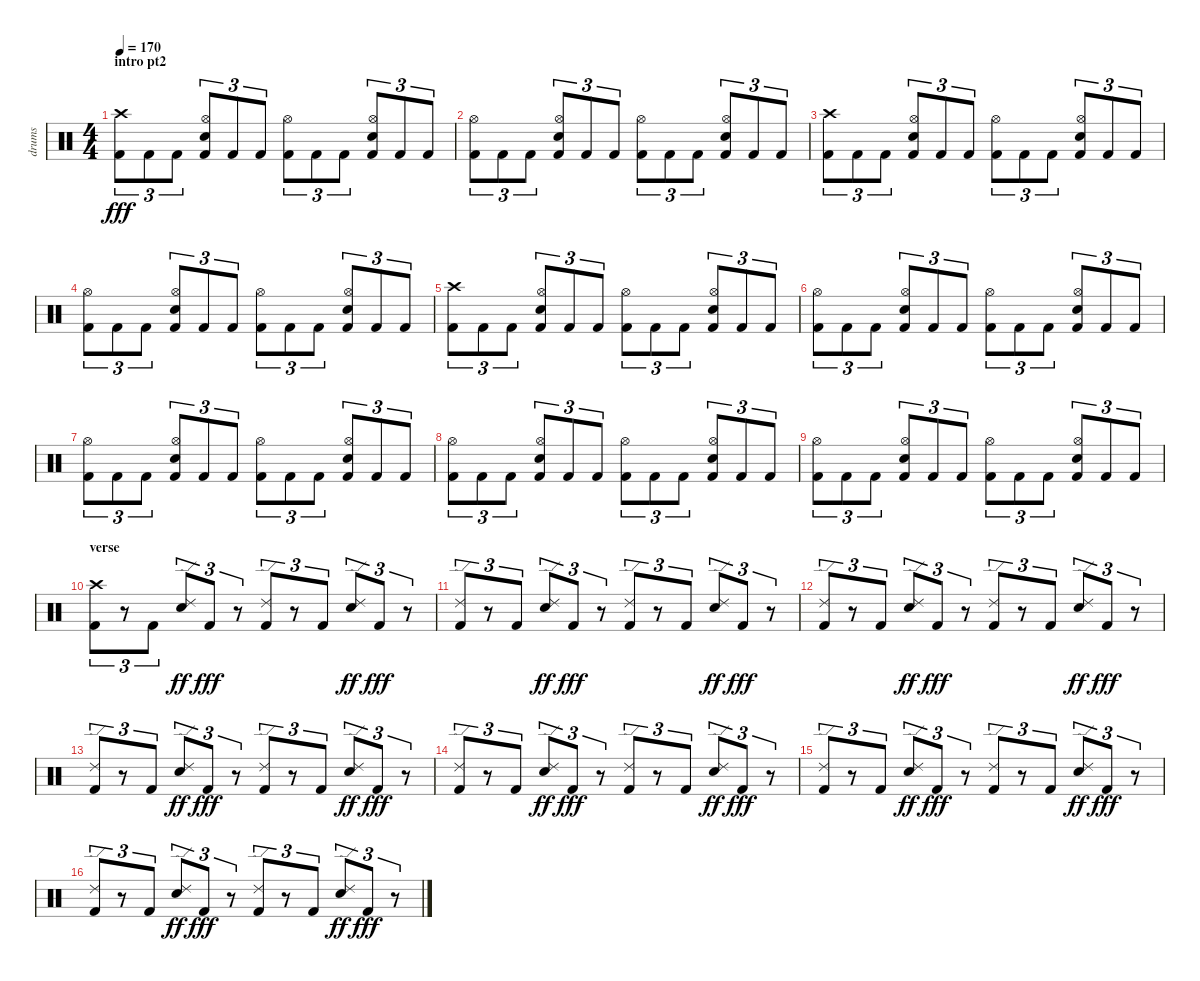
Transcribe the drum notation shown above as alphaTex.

\track ("drums" "drums") {instrument percussion}
\staff {score}
\articulation defaults
\ts (4 4)
\section ("" "intro pt2")
\tempo 170
\clef neutral
\ks c
("Crash high (hit)" "Kick (hit) 2").8{tu (3 2) dy fff} "Kick (hit) 2".8{tu (3 2)} "Kick (hit) 2".8{tu (3 2)} ("Hi-Hat (open)" "Snare (hit) 2" "Kick (hit) 2").8{tu (3 2)} "Kick (hit) 2".8{tu (3 2)} "Kick (hit) 2".8{tu (3 2)} ("Hi-Hat (open)" "Kick (hit) 2").8{tu (3 2)} "Kick (hit) 2".8{tu (3 2)} "Kick (hit) 2".8{tu (3 2)} ("Hi-Hat (open)" "Snare (hit) 2" "Kick (hit) 2").8{tu (3 2)} "Kick (hit) 2".8{tu (3 2)} "Kick (hit) 2".8{tu (3 2)} |
("Hi-Hat (open)" "Kick (hit) 2").8{tu (3 2)} "Kick (hit) 2".8{tu (3 2)} "Kick (hit) 2".8{tu (3 2)} ("Hi-Hat (open)" "Snare (hit) 2" "Kick (hit) 2").8{tu (3 2)} "Kick (hit) 2".8{tu (3 2)} "Kick (hit) 2".8{tu (3 2)} ("Hi-Hat (open)" "Kick (hit) 2").8{tu (3 2)} "Kick (hit) 2".8{tu (3 2)} "Kick (hit) 2".8{tu (3 2)} ("Hi-Hat (open)" "Snare (hit) 2" "Kick (hit) 2").8{tu (3 2)} "Kick (hit) 2".8{tu (3 2)} "Kick (hit) 2".8{tu (3 2)} |
("Crash high (hit)" "Kick (hit) 2").8{tu (3 2)} "Kick (hit) 2".8{tu (3 2)} "Kick (hit) 2".8{tu (3 2)} ("Hi-Hat (open)" "Snare (hit) 2" "Kick (hit) 2").8{tu (3 2)} "Kick (hit) 2".8{tu (3 2)} "Kick (hit) 2".8{tu (3 2)} ("Hi-Hat (open)" "Kick (hit) 2").8{tu (3 2)} "Kick (hit) 2".8{tu (3 2)} "Kick (hit) 2".8{tu (3 2)} ("Hi-Hat (open)" "Snare (hit) 2" "Kick (hit) 2").8{tu (3 2)} "Kick (hit) 2".8{tu (3 2)} "Kick (hit) 2".8{tu (3 2)} |
("Hi-Hat (open)" "Kick (hit) 2").8{tu (3 2)} "Kick (hit) 2".8{tu (3 2)} "Kick (hit) 2".8{tu (3 2)} ("Hi-Hat (open)" "Snare (hit) 2" "Kick (hit) 2").8{tu (3 2)} "Kick (hit) 2".8{tu (3 2)} "Kick (hit) 2".8{tu (3 2)} ("Hi-Hat (open)" "Kick (hit) 2").8{tu (3 2)} "Kick (hit) 2".8{tu (3 2)} "Kick (hit) 2".8{tu (3 2)} ("Hi-Hat (open)" "Snare (hit) 2" "Kick (hit) 2").8{tu (3 2)} "Kick (hit) 2".8{tu (3 2)} "Kick (hit) 2".8{tu (3 2)} |
("Crash high (hit)" "Kick (hit) 2").8{tu (3 2)} "Kick (hit) 2".8{tu (3 2)} "Kick (hit) 2".8{tu (3 2)} ("Hi-Hat (open)" "Snare (hit) 2" "Kick (hit) 2").8{tu (3 2)} "Kick (hit) 2".8{tu (3 2)} "Kick (hit) 2".8{tu (3 2)} ("Hi-Hat (open)" "Kick (hit) 2").8{tu (3 2)} "Kick (hit) 2".8{tu (3 2)} "Kick (hit) 2".8{tu (3 2)} ("Hi-Hat (open)" "Snare (hit) 2" "Kick (hit) 2").8{tu (3 2)} "Kick (hit) 2".8{tu (3 2)} "Kick (hit) 2".8{tu (3 2)} |
("Hi-Hat (open)" "Kick (hit) 2").8{tu (3 2)} "Kick (hit) 2".8{tu (3 2)} "Kick (hit) 2".8{tu (3 2)} ("Hi-Hat (open)" "Snare (hit) 2" "Kick (hit) 2").8{tu (3 2)} "Kick (hit) 2".8{tu (3 2)} "Kick (hit) 2".8{tu (3 2)} ("Hi-Hat (open)" "Kick (hit) 2").8{tu (3 2)} "Kick (hit) 2".8{tu (3 2)} "Kick (hit) 2".8{tu (3 2)} ("Hi-Hat (open)" "Snare (hit) 2" "Kick (hit) 2").8{tu (3 2)} "Kick (hit) 2".8{tu (3 2)} "Kick (hit) 2".8{tu (3 2)} |
("Hi-Hat (open)" "Kick (hit) 2").8{tu (3 2)} "Kick (hit) 2".8{tu (3 2)} "Kick (hit) 2".8{tu (3 2)} ("Hi-Hat (open)" "Snare (hit) 2" "Kick (hit) 2").8{tu (3 2)} "Kick (hit) 2".8{tu (3 2)} "Kick (hit) 2".8{tu (3 2)} ("Hi-Hat (open)" "Kick (hit) 2").8{tu (3 2)} "Kick (hit) 2".8{tu (3 2)} "Kick (hit) 2".8{tu (3 2)} ("Hi-Hat (open)" "Snare (hit) 2" "Kick (hit) 2").8{tu (3 2)} "Kick (hit) 2".8{tu (3 2)} "Kick (hit) 2".8{tu (3 2)} |
("Hi-Hat (open)" "Kick (hit) 2").8{tu (3 2)} "Kick (hit) 2".8{tu (3 2)} "Kick (hit) 2".8{tu (3 2)} ("Hi-Hat (open)" "Snare (hit) 2" "Kick (hit) 2").8{tu (3 2)} "Kick (hit) 2".8{tu (3 2)} "Kick (hit) 2".8{tu (3 2)} ("Hi-Hat (open)" "Kick (hit) 2").8{tu (3 2)} "Kick (hit) 2".8{tu (3 2)} "Kick (hit) 2".8{tu (3 2)} ("Hi-Hat (open)" "Snare (hit) 2" "Kick (hit) 2").8{tu (3 2)} "Kick (hit) 2".8{tu (3 2)} "Kick (hit) 2".8{tu (3 2)} |
("Hi-Hat (open)" "Kick (hit) 2").8{tu (3 2)} "Kick (hit) 2".8{tu (3 2)} "Kick (hit) 2".8{tu (3 2)} ("Hi-Hat (open)" "Snare (hit) 2" "Kick (hit) 2").8{tu (3 2)} "Kick (hit) 2".8{tu (3 2)} "Kick (hit) 2".8{tu (3 2)} ("Hi-Hat (open)" "Kick (hit) 2").8{tu (3 2)} "Kick (hit) 2".8{tu (3 2)} "Kick (hit) 2".8{tu (3 2)} ("Hi-Hat (open)" "Snare (hit) 2" "Kick (hit) 2").8{tu (3 2)} "Kick (hit) 2".8{tu (3 2)} "Kick (hit) 2".8{tu (3 2)} |
\section ("" "verse")
("Crash high (hit)" "Kick (hit) 2").8{tu (3 2)} r.8{tu (3 2)} "Kick (hit) 2".8{tu (3 2)} ("Ride (edge) 2" "Snare (hit) 2").8{tu (3 2) dy ff} "Kick (hit) 2".8{tu (3 2) dy fff} r.8{tu (3 2)} ("Ride (edge) 2" "Kick (hit) 2").8{tu (3 2)} r.8{tu (3 2)} "Kick (hit) 2".8{tu (3 2)} ("Ride (edge) 2" "Snare (hit) 2").8{tu (3 2) dy ff} "Kick (hit) 2".8{tu (3 2) dy fff} r.8{tu (3 2)} |
("Ride (edge) 2" "Kick (hit) 2").8{tu (3 2)} r.8{tu (3 2)} "Kick (hit) 2".8{tu (3 2)} ("Ride (edge) 2" "Snare (hit) 2").8{tu (3 2) dy ff} "Kick (hit) 2".8{tu (3 2) dy fff} r.8{tu (3 2)} ("Ride (edge) 2" "Kick (hit) 2").8{tu (3 2)} r.8{tu (3 2)} "Kick (hit) 2".8{tu (3 2)} ("Ride (edge) 2" "Snare (hit) 2").8{tu (3 2) dy ff} "Kick (hit) 2".8{tu (3 2) dy fff} r.8{tu (3 2)} |
("Ride (edge) 2" "Kick (hit) 2").8{tu (3 2)} r.8{tu (3 2)} "Kick (hit) 2".8{tu (3 2)} ("Ride (edge) 2" "Snare (hit) 2").8{tu (3 2) dy ff} "Kick (hit) 2".8{tu (3 2) dy fff} r.8{tu (3 2)} ("Ride (edge) 2" "Kick (hit) 2").8{tu (3 2)} r.8{tu (3 2)} "Kick (hit) 2".8{tu (3 2)} ("Ride (edge) 2" "Snare (hit) 2").8{tu (3 2) dy ff} "Kick (hit) 2".8{tu (3 2) dy fff} r.8{tu (3 2)} |
("Ride (edge) 2" "Kick (hit) 2").8{tu (3 2)} r.8{tu (3 2)} "Kick (hit) 2".8{tu (3 2)} ("Ride (edge) 2" "Snare (hit) 2").8{tu (3 2) dy ff} "Kick (hit) 2".8{tu (3 2) dy fff} r.8{tu (3 2)} ("Ride (edge) 2" "Kick (hit) 2").8{tu (3 2)} r.8{tu (3 2)} "Kick (hit) 2".8{tu (3 2)} ("Ride (edge) 2" "Snare (hit) 2").8{tu (3 2) dy ff} "Kick (hit) 2".8{tu (3 2) dy fff} r.8{tu (3 2)} |
("Ride (edge) 2" "Kick (hit) 2").8{tu (3 2)} r.8{tu (3 2)} "Kick (hit) 2".8{tu (3 2)} ("Ride (edge) 2" "Snare (hit) 2").8{tu (3 2) dy ff} "Kick (hit) 2".8{tu (3 2) dy fff} r.8{tu (3 2)} ("Ride (edge) 2" "Kick (hit) 2").8{tu (3 2)} r.8{tu (3 2)} "Kick (hit) 2".8{tu (3 2)} ("Ride (edge) 2" "Snare (hit) 2").8{tu (3 2) dy ff} "Kick (hit) 2".8{tu (3 2) dy fff} r.8{tu (3 2)} |
("Ride (edge) 2" "Kick (hit) 2").8{tu (3 2)} r.8{tu (3 2)} "Kick (hit) 2".8{tu (3 2)} ("Ride (edge) 2" "Snare (hit) 2").8{tu (3 2) dy ff} "Kick (hit) 2".8{tu (3 2) dy fff} r.8{tu (3 2)} ("Ride (edge) 2" "Kick (hit) 2").8{tu (3 2)} r.8{tu (3 2)} "Kick (hit) 2".8{tu (3 2)} ("Ride (edge) 2" "Snare (hit) 2").8{tu (3 2) dy ff} "Kick (hit) 2".8{tu (3 2) dy fff} r.8{tu (3 2)} |
("Ride (edge) 2" "Kick (hit) 2").8{tu (3 2)} r.8{tu (3 2)} "Kick (hit) 2".8{tu (3 2)} ("Ride (edge) 2" "Snare (hit) 2").8{tu (3 2) dy ff} "Kick (hit) 2".8{tu (3 2) dy fff} r.8{tu (3 2)} ("Ride (edge) 2" "Kick (hit) 2").8{tu (3 2)} r.8{tu (3 2)} "Kick (hit) 2".8{tu (3 2)} ("Ride (edge) 2" "Snare (hit) 2").8{tu (3 2) dy ff} "Kick (hit) 2".8{tu (3 2) dy fff} r.8{tu (3 2)}
